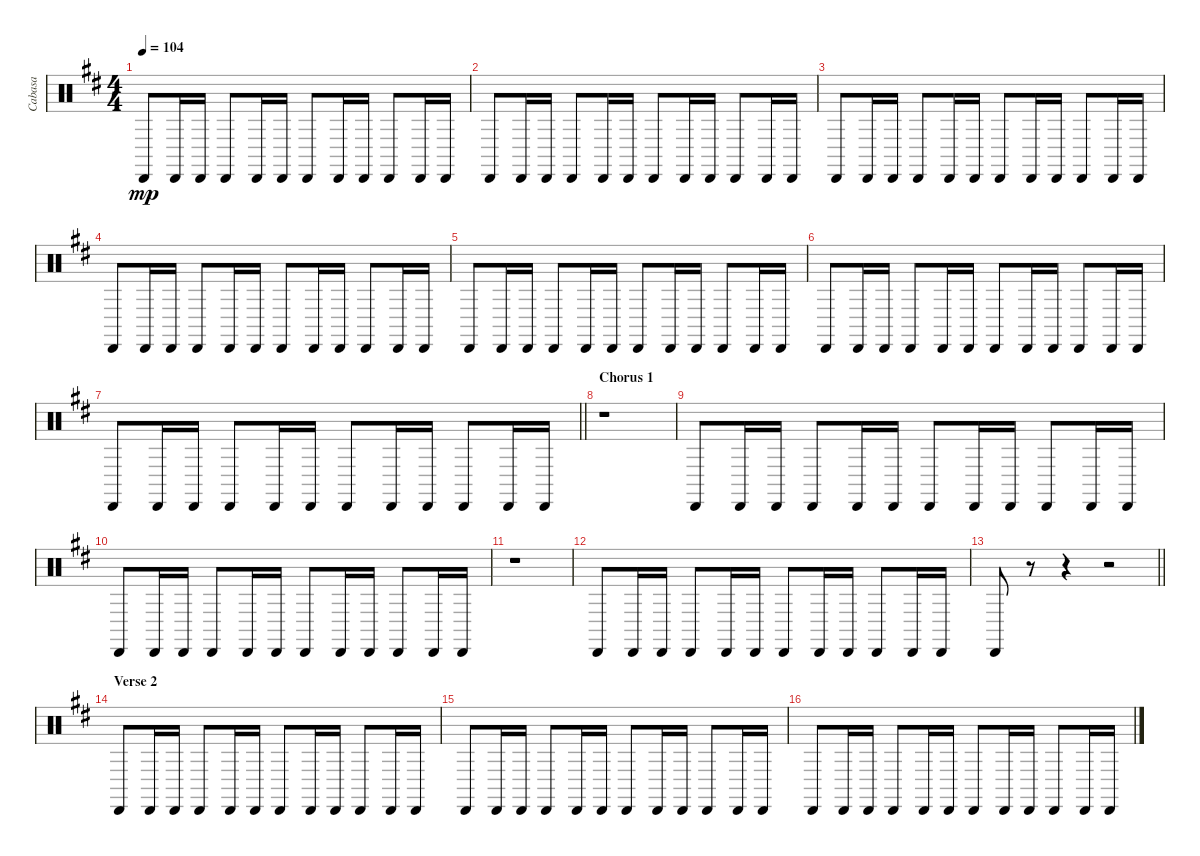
\track ("Cabasa" "Cabasa") {instrument percussion}
\staff {score}
\articulation defaults
\ts (4 4)
\tempo 104
\clef neutral
\ks bminor "Cabasa (hit)".8{dy mp} "Cabasa (hit)".16 "Cabasa (hit)".16 "Cabasa (hit)".8 "Cabasa (hit)".16 "Cabasa (hit)".16 "Cabasa (hit)".8 "Cabasa (hit)".16 "Cabasa (hit)".16 "Cabasa (hit)".8 "Cabasa (hit)".16 "Cabasa (hit)".16
|
"Cabasa (hit)".8 "Cabasa (hit)".16 "Cabasa (hit)".16 "Cabasa (hit)".8 "Cabasa (hit)".16 "Cabasa (hit)".16 "Cabasa (hit)".8 "Cabasa (hit)".16 "Cabasa (hit)".16 "Cabasa (hit)".8 "Cabasa (hit)".16 "Cabasa (hit)".16 |
"Cabasa (hit)".8 "Cabasa (hit)".16 "Cabasa (hit)".16 "Cabasa (hit)".8 "Cabasa (hit)".16 "Cabasa (hit)".16 "Cabasa (hit)".8 "Cabasa (hit)".16 "Cabasa (hit)".16 "Cabasa (hit)".8 "Cabasa (hit)".16 "Cabasa (hit)".16 |
"Cabasa (hit)".8 "Cabasa (hit)".16 "Cabasa (hit)".16 "Cabasa (hit)".8 "Cabasa (hit)".16 "Cabasa (hit)".16 "Cabasa (hit)".8 "Cabasa (hit)".16 "Cabasa (hit)".16 "Cabasa (hit)".8 "Cabasa (hit)".16 "Cabasa (hit)".16 |
"Cabasa (hit)".8 "Cabasa (hit)".16 "Cabasa (hit)".16 "Cabasa (hit)".8 "Cabasa (hit)".16 "Cabasa (hit)".16 "Cabasa (hit)".8 "Cabasa (hit)".16 "Cabasa (hit)".16 "Cabasa (hit)".8 "Cabasa (hit)".16 "Cabasa (hit)".16 |
"Cabasa (hit)".8 "Cabasa (hit)".16 "Cabasa (hit)".16 "Cabasa (hit)".8 "Cabasa (hit)".16 "Cabasa (hit)".16 "Cabasa (hit)".8 "Cabasa (hit)".16 "Cabasa (hit)".16 "Cabasa (hit)".8 "Cabasa (hit)".16 "Cabasa (hit)".16 |
\barLineRight lightlight "Cabasa (hit)".8 "Cabasa (hit)".16 "Cabasa (hit)".16 "Cabasa (hit)".8 "Cabasa (hit)".16 "Cabasa (hit)".16 "Cabasa (hit)".8 "Cabasa (hit)".16 "Cabasa (hit)".16 "Cabasa (hit)".8 "Cabasa (hit)".16 "Cabasa (hit)".16
|
\section ("" "Chorus 1")
r.1 |
"Cabasa (hit)".8 "Cabasa (hit)".16 "Cabasa (hit)".16 "Cabasa (hit)".8 "Cabasa (hit)".16 "Cabasa (hit)".16 "Cabasa (hit)".8 "Cabasa (hit)".16 "Cabasa (hit)".16 "Cabasa (hit)".8 "Cabasa (hit)".16 "Cabasa (hit)".16 |
"Cabasa (hit)".8 "Cabasa (hit)".16 "Cabasa (hit)".16 "Cabasa (hit)".8 "Cabasa (hit)".16 "Cabasa (hit)".16 "Cabasa (hit)".8 "Cabasa (hit)".16 "Cabasa (hit)".16 "Cabasa (hit)".8 "Cabasa (hit)".16 "Cabasa (hit)".16 |
r.1 |
"Cabasa (hit)".8 "Cabasa (hit)".16 "Cabasa (hit)".16 "Cabasa (hit)".8 "Cabasa (hit)".16 "Cabasa (hit)".16 "Cabasa (hit)".8 "Cabasa (hit)".16 "Cabasa (hit)".16 "Cabasa (hit)".8 "Cabasa (hit)".16 "Cabasa (hit)".16 |
\barLineRight lightlight "Cabasa (hit)".8
r.8 r.4 r.2 |
\section ("" "Verse 2")
"Cabasa (hit)".8 "Cabasa (hit)".16 "Cabasa (hit)".16 "Cabasa (hit)".8 "Cabasa (hit)".16 "Cabasa (hit)".16 "Cabasa (hit)".8 "Cabasa (hit)".16 "Cabasa (hit)".16 "Cabasa (hit)".8 "Cabasa (hit)".16 "Cabasa (hit)".16 |
"Cabasa (hit)".8 "Cabasa (hit)".16 "Cabasa (hit)".16 "Cabasa (hit)".8 "Cabasa (hit)".16 "Cabasa (hit)".16 "Cabasa (hit)".8 "Cabasa (hit)".16 "Cabasa (hit)".16 "Cabasa (hit)".8 "Cabasa (hit)".16 "Cabasa (hit)".16 |
"Cabasa (hit)".8 "Cabasa (hit)".16 "Cabasa (hit)".16 "Cabasa (hit)".8 "Cabasa (hit)".16 "Cabasa (hit)".16 "Cabasa (hit)".8 "Cabasa (hit)".16 "Cabasa (hit)".16 "Cabasa (hit)".8 "Cabasa (hit)".16 "Cabasa (hit)".16
